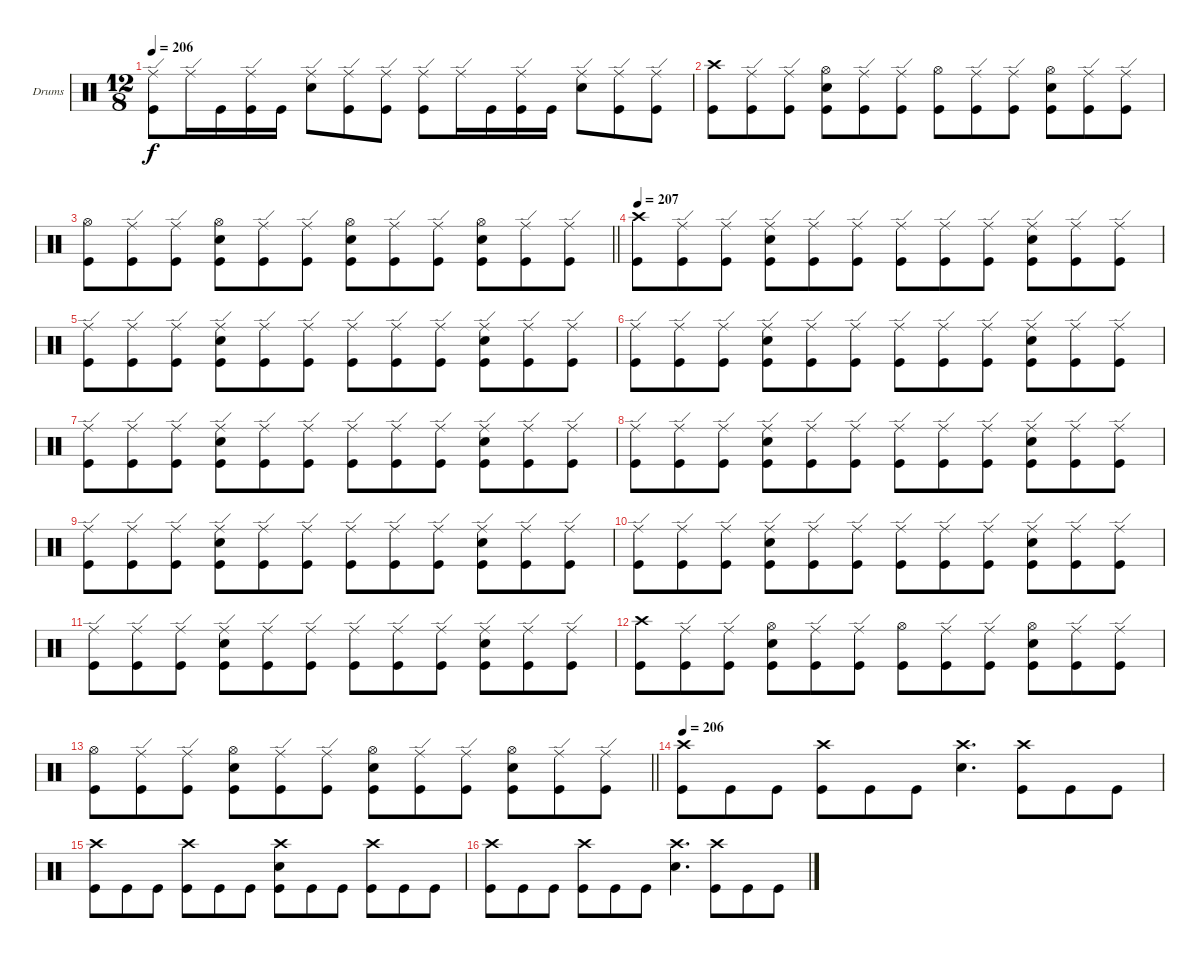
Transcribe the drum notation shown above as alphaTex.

\bracketExtendMode groupsimilarinstruments
\firstSystemTrackNameOrientation horizontal
\otherSystemsTrackNameOrientation horizontal
\track ("Drumkit" "Drums") {instrument percussion}
\staff {score}
\articulation defaults
\ts (12 8)
\tempo 206
\clef neutral
\ks c
("Ride (edge)" "Kick (hit)").8{dy f} "Ride (edge)".16 "Kick (hit)".16 ("Ride (edge)" "Kick (hit)").16 "Kick (hit)".16 ("Ride (edge)" "Snare (hit) 2").8 ("Ride (edge)" "Kick (hit)").8 ("Ride (edge)" "Kick (hit)").8 ("Ride (edge)" "Kick (hit)").8 "Ride (edge)".16 "Kick (hit)".16 ("Ride (edge)" "Kick (hit)").16 "Kick (hit)".16 ("Ride (edge)" "Snare (hit) 2").8 ("Ride (edge)" "Kick (hit)").8 ("Ride (edge)" "Kick (hit)").8 |
("Crash high (hit)" "Kick (hit)").8 ("Ride (edge)" "Kick (hit)").8 ("Ride (edge)" "Kick (hit)").8 ("Hi-Hat (open)" "Kick (hit)" "Snare (hit) 2").8 ("Ride (edge)" "Kick (hit)").8 ("Ride (edge)" "Kick (hit)").8 ("Hi-Hat (open)" "Kick (hit)").8 ("Ride (edge)" "Kick (hit)").8 ("Ride (edge)" "Kick (hit)").8 ("Hi-Hat (open)" "Kick (hit)" "Snare (hit) 2").8 ("Ride (edge)" "Kick (hit)").8 ("Ride (edge)" "Kick (hit)").8 |
\barLineRight lightlight
("Hi-Hat (open)" "Kick (hit)").8 ("Ride (edge)" "Kick (hit)").8 ("Ride (edge)" "Kick (hit)").8 ("Hi-Hat (open)" "Kick (hit)" "Snare (hit) 2").8 ("Ride (edge)" "Kick (hit)").8 ("Ride (edge)" "Kick (hit)").8 ("Hi-Hat (open)" "Kick (hit)" "Snare (hit) 2").8 ("Ride (edge)" "Kick (hit)").8 ("Ride (edge)" "Kick (hit)").8 ("Hi-Hat (open)" "Kick (hit)" "Snare (hit) 2").8 ("Ride (edge)" "Kick (hit)").8 ("Ride (edge)" "Kick (hit)").8 |
\tempo 207
("Crash high (hit)" "Kick (hit)").8 ("Ride (edge)" "Kick (hit)").8 ("Ride (edge)" "Kick (hit)").8 ("Ride (edge)" "Kick (hit)" "Snare (hit) 2").8 ("Ride (edge)" "Kick (hit)").8 ("Ride (edge)" "Kick (hit)").8 ("Ride (edge)" "Kick (hit)").8 ("Ride (edge)" "Kick (hit)").8 ("Ride (edge)" "Kick (hit)").8 ("Ride (edge)" "Kick (hit)" "Snare (hit) 2").8 ("Ride (edge)" "Kick (hit)").8 ("Ride (edge)" "Kick (hit)").8 |
("Ride (edge)" "Kick (hit)").8 ("Ride (edge)" "Kick (hit)").8 ("Ride (edge)" "Kick (hit)").8 ("Ride (edge)" "Kick (hit)" "Snare (hit) 2").8 ("Ride (edge)" "Kick (hit)").8 ("Ride (edge)" "Kick (hit)").8 ("Ride (edge)" "Kick (hit)").8 ("Ride (edge)" "Kick (hit)").8 ("Ride (edge)" "Kick (hit)").8 ("Ride (edge)" "Kick (hit)" "Snare (hit) 2").8 ("Ride (edge)" "Kick (hit)").8 ("Ride (edge)" "Kick (hit)").8 |
("Ride (edge)" "Kick (hit)").8 ("Ride (edge)" "Kick (hit)").8 ("Ride (edge)" "Kick (hit)").8 ("Ride (edge)" "Kick (hit)" "Snare (hit) 2").8 ("Ride (edge)" "Kick (hit)").8 ("Ride (edge)" "Kick (hit)").8 ("Ride (edge)" "Kick (hit)").8 ("Ride (edge)" "Kick (hit)").8 ("Ride (edge)" "Kick (hit)").8 ("Ride (edge)" "Kick (hit)" "Snare (hit) 2").8 ("Ride (edge)" "Kick (hit)").8 ("Ride (edge)" "Kick (hit)").8 |
("Ride (edge)" "Kick (hit)").8 ("Ride (edge)" "Kick (hit)").8 ("Ride (edge)" "Kick (hit)").8 ("Ride (edge)" "Kick (hit)" "Snare (hit) 2").8 ("Ride (edge)" "Kick (hit)").8 ("Ride (edge)" "Kick (hit)").8 ("Ride (edge)" "Kick (hit)").8 ("Ride (edge)" "Kick (hit)").8 ("Ride (edge)" "Kick (hit)").8 ("Ride (edge)" "Kick (hit)" "Snare (hit) 2").8 ("Ride (edge)" "Kick (hit)").8 ("Ride (edge)" "Kick (hit)").8 |
("Ride (edge)" "Kick (hit)").8 ("Ride (edge)" "Kick (hit)").8 ("Ride (edge)" "Kick (hit)").8 ("Ride (edge)" "Kick (hit)" "Snare (hit) 2").8 ("Ride (edge)" "Kick (hit)").8 ("Ride (edge)" "Kick (hit)").8 ("Ride (edge)" "Kick (hit)").8 ("Ride (edge)" "Kick (hit)").8 ("Ride (edge)" "Kick (hit)").8 ("Ride (edge)" "Kick (hit)" "Snare (hit) 2").8 ("Ride (edge)" "Kick (hit)").8 ("Ride (edge)" "Kick (hit)").8 |
("Ride (edge)" "Kick (hit)").8 ("Ride (edge)" "Kick (hit)").8 ("Ride (edge)" "Kick (hit)").8 ("Ride (edge)" "Kick (hit)" "Snare (hit) 2").8 ("Ride (edge)" "Kick (hit)").8 ("Ride (edge)" "Kick (hit)").8 ("Ride (edge)" "Kick (hit)").8 ("Ride (edge)" "Kick (hit)").8 ("Ride (edge)" "Kick (hit)").8 ("Ride (edge)" "Kick (hit)" "Snare (hit) 2").8 ("Ride (edge)" "Kick (hit)").8 ("Ride (edge)" "Kick (hit)").8 |
("Ride (edge)" "Kick (hit)").8 ("Ride (edge)" "Kick (hit)").8 ("Ride (edge)" "Kick (hit)").8 ("Ride (edge)" "Kick (hit)" "Snare (hit) 2").8 ("Ride (edge)" "Kick (hit)").8 ("Ride (edge)" "Kick (hit)").8 ("Ride (edge)" "Kick (hit)").8 ("Ride (edge)" "Kick (hit)").8 ("Ride (edge)" "Kick (hit)").8 ("Ride (edge)" "Kick (hit)" "Snare (hit) 2").8 ("Ride (edge)" "Kick (hit)").8 ("Ride (edge)" "Kick (hit)").8 |
("Ride (edge)" "Kick (hit)").8 ("Ride (edge)" "Kick (hit)").8 ("Ride (edge)" "Kick (hit)").8 ("Ride (edge)" "Kick (hit)" "Snare (hit) 2").8 ("Ride (edge)" "Kick (hit)").8 ("Ride (edge)" "Kick (hit)").8 ("Ride (edge)" "Kick (hit)").8 ("Ride (edge)" "Kick (hit)").8 ("Ride (edge)" "Kick (hit)").8 ("Ride (edge)" "Kick (hit)" "Snare (hit) 2").8 ("Ride (edge)" "Kick (hit)").8 ("Ride (edge)" "Kick (hit)").8 |
("Crash high (hit)" "Kick (hit)").8 ("Ride (edge)" "Kick (hit)").8 ("Ride (edge)" "Kick (hit)").8 ("Hi-Hat (open)" "Kick (hit)" "Snare (hit) 2").8 ("Ride (edge)" "Kick (hit)").8 ("Ride (edge)" "Kick (hit)").8 ("Hi-Hat (open)" "Kick (hit)").8 ("Ride (edge)" "Kick (hit)").8 ("Ride (edge)" "Kick (hit)").8 ("Hi-Hat (open)" "Kick (hit)" "Snare (hit) 2").8 ("Ride (edge)" "Kick (hit)").8 ("Ride (edge)" "Kick (hit)").8 |
\barLineRight lightlight
("Hi-Hat (open)" "Kick (hit)").8 ("Ride (edge)" "Kick (hit)").8 ("Ride (edge)" "Kick (hit)").8 ("Hi-Hat (open)" "Kick (hit)" "Snare (hit) 2").8 ("Ride (edge)" "Kick (hit)").8 ("Ride (edge)" "Kick (hit)").8 ("Hi-Hat (open)" "Kick (hit)" "Snare (hit) 2").8 ("Ride (edge)" "Kick (hit)").8 ("Ride (edge)" "Kick (hit)").8 ("Hi-Hat (open)" "Kick (hit)" "Snare (hit) 2").8 ("Ride (edge)" "Kick (hit)").8 ("Ride (edge)" "Kick (hit)").8 |
\tempo 206
("Crash high (hit)" "Kick (hit)").8 "Kick (hit)".8 "Kick (hit)".8 ("Crash high (hit)" "Kick (hit)").8 "Kick (hit)".8 "Kick (hit)".8 ("Crash high (hit)" "Snare (hit) 2").4{d} ("Crash high (hit)" "Kick (hit)").8 "Kick (hit)".8 "Kick (hit)".8 |
("Crash high (hit)" "Kick (hit)").8 "Kick (hit)".8 "Kick (hit)".8 ("Crash high (hit)" "Kick (hit)").8 "Kick (hit)".8 "Kick (hit)".8 ("Crash high (hit)" "Kick (hit)" "Snare (hit) 2").8 "Kick (hit)".8 "Kick (hit)".8 ("Crash high (hit)" "Kick (hit)").8 "Kick (hit)".8 "Kick (hit)".8 |
("Crash high (hit)" "Kick (hit)").8 "Kick (hit)".8 "Kick (hit)".8 ("Crash high (hit)" "Kick (hit)").8 "Kick (hit)".8 "Kick (hit)".8 ("Crash high (hit)" "Snare (hit) 2").4{d} ("Crash high (hit)" "Kick (hit)").8 "Kick (hit)".8 "Kick (hit)".8
